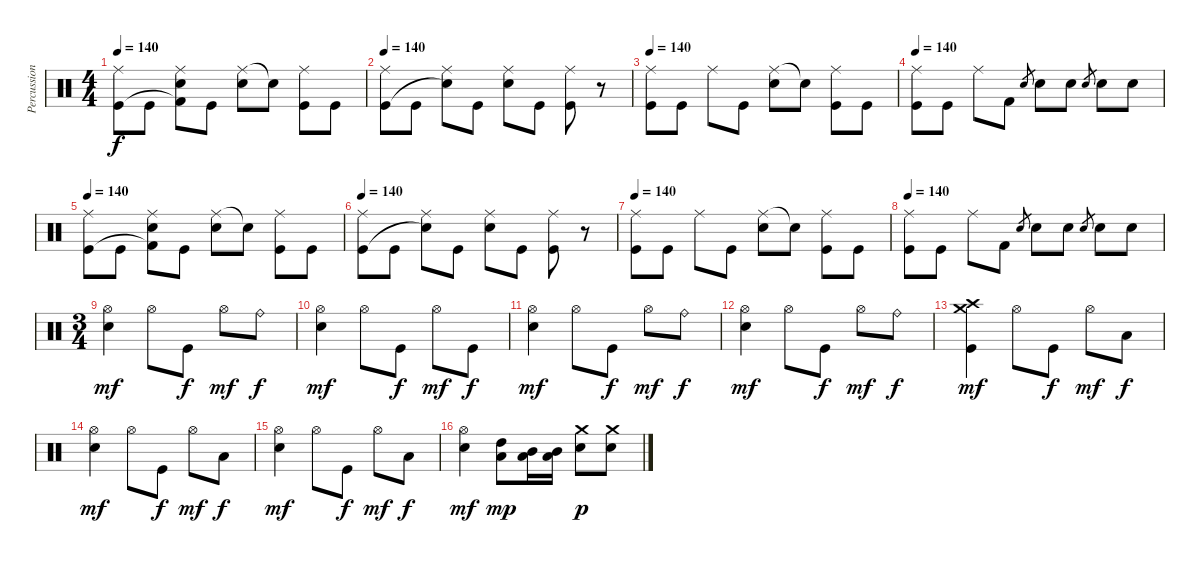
\track ("Percussion" "Percussion") {instrument percussion}
\staff {score}
\articulation defaults
\ts (4 4)
\tempo 140
\clef neutral
\ks c
("Ride (middle)" "Kick (hit)").8{dy f} "Kick (hit)".8 ("Ride (middle)" "Kick (hit) 2"{t} "Snare (hit)").8 "Kick (hit)".8 ("Ride (middle)" "Electric Snare (hit)").8 "Snare (hit)"{t}.8 ("Ride (middle)" "Kick (hit)").8 "Kick (hit)".8 |
\tempo 140
("Ride (middle)" "Kick (hit)").8 "Kick (hit)".8 ("Ride (middle)" "Snare (hit)"{t}).8 "Kick (hit)".8 ("Ride (middle)" "Electric Snare (hit)").8 "Kick (hit)".8 ("Ride (middle)" "Kick (hit)").8 r.8 |
\tempo 140
("Ride (middle)" "Kick (hit)").8 "Kick (hit)".8 "Ride (middle)".8 "Kick (hit)".8 ("Ride (middle)" "Electric Snare (hit)").8 "Snare (hit)"{t}.8 ("Ride (middle)" "Kick (hit)").8 "Kick (hit)".8 |
\tempo 140
("Ride (middle)" "Kick (hit)").8 "Kick (hit)".8 "Ride (middle)".8 "Kick (hit) 2".8 "Electric Snare (hit)".8{gr} "Electric Snare (hit)".8 "Electric Snare (hit)".8 "Electric Snare (hit)".8{gr} "Electric Snare (hit)".8 "Electric Snare (hit)".8 |
\tempo 140
("Ride (middle)" "Kick (hit)").8 "Kick (hit)".8 ("Ride (middle)" "Kick (hit) 2"{t} "Snare (hit)").8 "Kick (hit)".8 ("Ride (middle)" "Electric Snare (hit)").8 "Snare (hit)"{t}.8 ("Ride (middle)" "Kick (hit)").8 "Kick (hit)".8 |
\tempo 140
("Ride (middle)" "Kick (hit)").8 "Kick (hit)".8 ("Ride (middle)" "Snare (hit)"{t}).8 "Kick (hit)".8 ("Ride (middle)" "Electric Snare (hit)").8 "Kick (hit)".8 ("Ride (middle)" "Kick (hit)").8 r.8 |
\tempo 140
("Ride (middle)" "Kick (hit)").8 "Kick (hit)".8 "Ride (middle)".8 "Kick (hit)".8 ("Ride (middle)" "Electric Snare (hit)").8 "Snare (hit)"{t}.8 ("Ride (middle)" "Kick (hit)").8 "Kick (hit)".8 |
\tempo 140
("Ride (middle)" "Kick (hit)").8 "Kick (hit)".8 "Ride (middle)".8 "Kick (hit) 2".8 "Electric Snare (hit)".8{gr} "Electric Snare (hit)".8 "Electric Snare (hit)".8 "Electric Snare (hit)".8{gr} "Electric Snare (hit)".8 "Electric Snare (hit)".8 |
\ts (3 4)
("Electric Snare (hit)" "Hi-Hat (open)").4{dy mf} "Hi-Hat (open)".8 "Kick (hit)".8{dy f} "Hi-Hat (open)".8{dy mf} "Ride (bell)".8{dy f} |
("Electric Snare (hit)" "Hi-Hat (open)").4{dy mf} "Hi-Hat (open)".8 "Kick (hit)".8{dy f} "Hi-Hat (open)".8{dy mf} "Kick (hit)".8{dy f} |
("Electric Snare (hit)" "Hi-Hat (open)").4{dy mf} "Hi-Hat (open)".8 "Kick (hit)".8{dy f} "Hi-Hat (open)".8{dy mf} "Ride (bell)".8{dy f} |
("Electric Snare (hit)" "Hi-Hat (open)").4{dy mf} "Hi-Hat (open)".8 "Kick (hit)".8{dy f} "Hi-Hat (open)".8{dy mf} "Ride (bell)".8{dy f} |
("Kick (hit)" "Crash high (hit)" "Crash medium (hit)").4{dy mf} "Hi-Hat (open)".8 "Kick (hit)".8{dy f} "Hi-Hat (open)".8{dy mf} "Low Floor Tom (hit)".8{dy f} |
("Electric Snare (hit)" "Hi-Hat (open)").4{dy mf} "Hi-Hat (open)".8 "Kick (hit)".8{dy f} "Hi-Hat (open)".8{dy mf} "Low Floor Tom (hit)".8{dy f} |
("Electric Snare (hit)" "Hi-Hat (open)").4{dy mf} "Hi-Hat (open)".8 "Kick (hit)".8{dy f} "Hi-Hat (open)".8{dy mf} "Low Floor Tom (hit)".8{dy f} |
("Electric Snare (hit)" "Hi-Hat (open)").4{dy mf} ("Low Tom (hit)" "High Tom (hit)").8{dy mp} ("Low Tom (hit)" "Mid Tom (hit)").16 ("Low Tom (hit)" "Mid Tom (hit)").16 ("Electric Snare (hit)" "Crash medium (hit)").8{dy p} ("Electric Snare (hit)" "Crash medium (hit)").8
